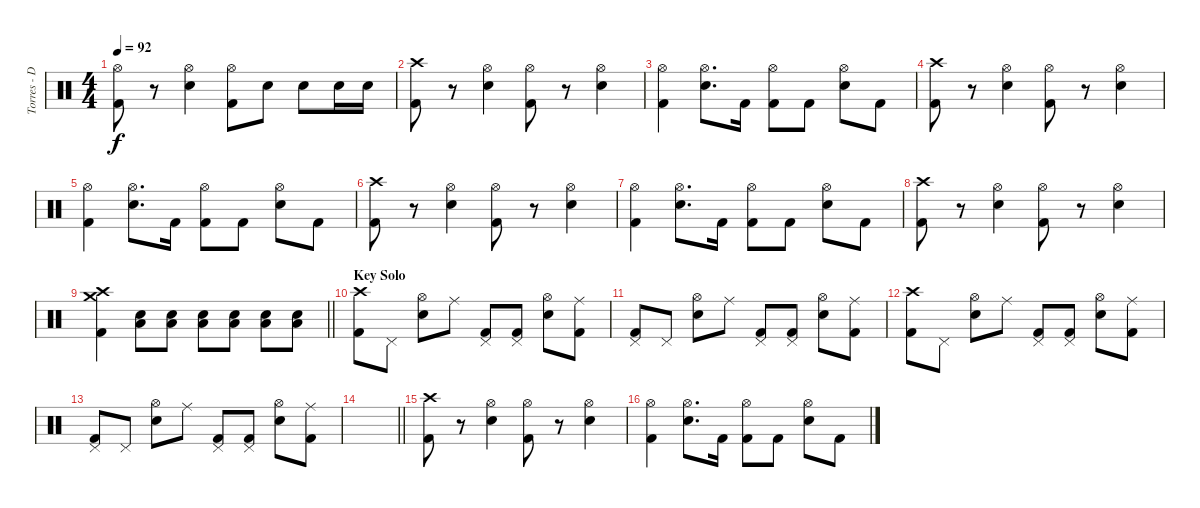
\track ("Torres - Drums" "Torres - D") {instrument percussion}
\staff {score}
\articulation defaults
\ts (4 4)
\tempo 92
\clef neutral
\ks c
("Kick (hit) 2" "Hi-Hat (open)").8{dy f} r.8 ("Electric Snare (hit)" "Hi-Hat (open)").4 ("Kick (hit) 2" "Hi-Hat (open)").8 "Electric Snare (hit)".8 "Electric Snare (hit)".8 "Electric Snare (hit)".16 "Electric Snare (hit)".16 |
("Kick (hit) 2" "Crash high (hit)").8 r.8 ("Electric Snare (hit)" "Hi-Hat (open)").4 ("Kick (hit) 2" "Hi-Hat (open)").8 r.8 ("Electric Snare (hit)" "Hi-Hat (open)").4 |
("Kick (hit) 2" "Hi-Hat (open)").4 ("Electric Snare (hit)" "Hi-Hat (open)").8{d} "Kick (hit) 2".16 ("Kick (hit) 2" "Hi-Hat (open)").8 "Kick (hit) 2".8 ("Electric Snare (hit)" "Hi-Hat (open)").8 "Kick (hit) 2".8 |
("Kick (hit) 2" "Crash high (hit)").8 r.8 ("Electric Snare (hit)" "Hi-Hat (open)").4 ("Kick (hit) 2" "Hi-Hat (open)").8 r.8 ("Electric Snare (hit)" "Hi-Hat (open)").4 |
("Kick (hit) 2" "Hi-Hat (open)").4 ("Electric Snare (hit)" "Hi-Hat (open)").8{d} "Kick (hit) 2".16 ("Kick (hit) 2" "Hi-Hat (open)").8 "Kick (hit) 2".8 ("Electric Snare (hit)" "Hi-Hat (open)").8 "Kick (hit) 2".8 |
("Kick (hit) 2" "Crash high (hit)").8 r.8 ("Electric Snare (hit)" "Hi-Hat (open)").4 ("Kick (hit) 2" "Hi-Hat (open)").8 r.8 ("Electric Snare (hit)" "Hi-Hat (open)").4 |
("Kick (hit) 2" "Hi-Hat (open)").4 ("Electric Snare (hit)" "Hi-Hat (open)").8{d} "Kick (hit) 2".16 ("Kick (hit) 2" "Hi-Hat (open)").8 "Kick (hit) 2".8 ("Electric Snare (hit)" "Hi-Hat (open)").8 "Kick (hit) 2".8 |
("Kick (hit) 2" "Crash high (hit)").8 r.8 ("Electric Snare (hit)" "Hi-Hat (open)").4 ("Kick (hit) 2" "Hi-Hat (open)").8 r.8 ("Electric Snare (hit)" "Hi-Hat (open)").4 |
\barLineRight lightlight
("Kick (hit) 2" "Crash medium (hit)" "Crash high (hit)").4 ("Low Floor Tom (hit)" "Electric Snare (hit)").8 ("Low Floor Tom (hit)" "Electric Snare (hit)").8 ("Low Floor Tom (hit)" "Electric Snare (hit)").8 ("Low Floor Tom (hit)" "Electric Snare (hit)").8 ("Low Floor Tom (hit)" "Electric Snare (hit)").8 ("Low Floor Tom (hit)" "Electric Snare (hit)").8 |
\section ("" "Key Solo")
("Kick (hit) 2" "Crash high (hit)").8 "Pedal Hi-Hat (hit)".8 ("Electric Snare (hit)" "Hi-Hat (open)").8 "Ride (middle)".8 ("Kick (hit) 2" "Pedal Hi-Hat (hit)").8 ("Kick (hit) 2" "Pedal Hi-Hat (hit)").8 ("Electric Snare (hit)" "Hi-Hat (open)").8 ("Kick (hit) 2" "Ride (middle)").8 |
("Kick (hit) 2" "Pedal Hi-Hat (hit)").8 "Pedal Hi-Hat (hit)".8 ("Electric Snare (hit)" "Hi-Hat (open)").8 "Ride (middle)".8 ("Kick (hit) 2" "Pedal Hi-Hat (hit)").8 ("Kick (hit) 2" "Pedal Hi-Hat (hit)").8 ("Electric Snare (hit)" "Hi-Hat (open)").8 ("Kick (hit) 2" "Ride (middle)").8 |
("Kick (hit) 2" "Crash high (hit)").8 "Pedal Hi-Hat (hit)".8 ("Electric Snare (hit)" "Hi-Hat (open)").8 "Ride (middle)".8 ("Kick (hit) 2" "Pedal Hi-Hat (hit)").8 ("Kick (hit) 2" "Pedal Hi-Hat (hit)").8 ("Electric Snare (hit)" "Hi-Hat (open)").8 ("Kick (hit) 2" "Ride (middle)").8 |
("Kick (hit) 2" "Pedal Hi-Hat (hit)").8 "Pedal Hi-Hat (hit)".8 ("Electric Snare (hit)" "Hi-Hat (open)").8 "Ride (middle)".8 ("Kick (hit) 2" "Pedal Hi-Hat (hit)").8 ("Kick (hit) 2" "Pedal Hi-Hat (hit)").8 ("Electric Snare (hit)" "Hi-Hat (open)").8 ("Kick (hit) 2" "Ride (middle)").8 |
\barLineRight lightlight
|
("Kick (hit) 2" "Crash high (hit)").8 r.8 ("Electric Snare (hit)" "Hi-Hat (open)").4 ("Kick (hit) 2" "Hi-Hat (open)").8 r.8 ("Electric Snare (hit)" "Hi-Hat (open)").4 |
("Kick (hit) 2" "Hi-Hat (open)").4 ("Electric Snare (hit)" "Hi-Hat (open)").8{d} "Kick (hit) 2".16 ("Kick (hit) 2" "Hi-Hat (open)").8 "Kick (hit) 2".8 ("Electric Snare (hit)" "Hi-Hat (open)").8 "Kick (hit) 2".8
